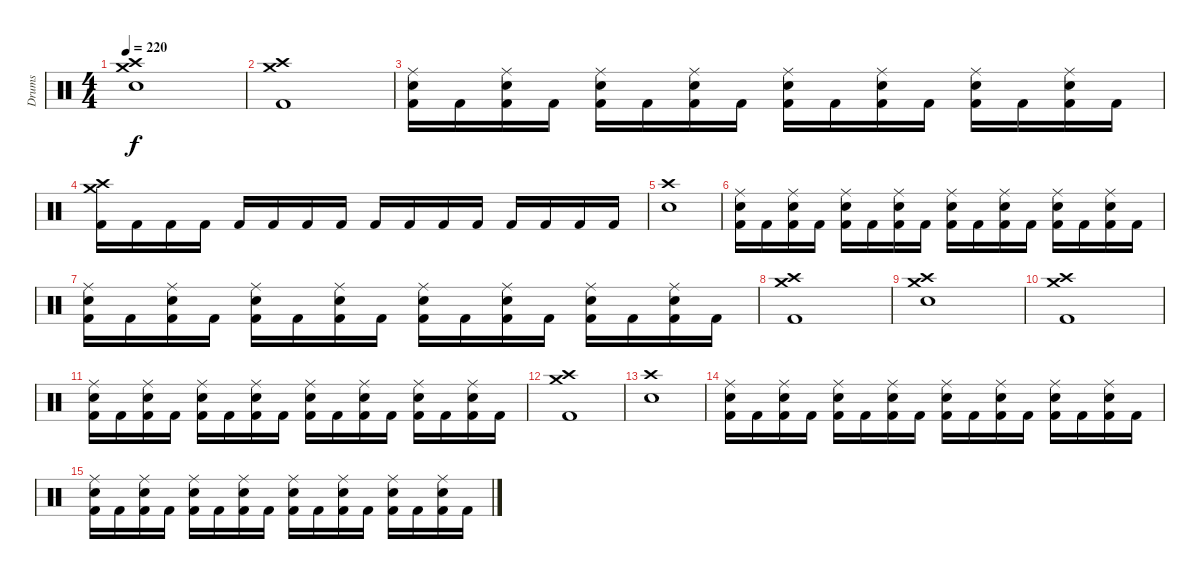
\track ("Drums" "Drums") {instrument percussion}
\staff {score}
\articulation defaults
\ts (4 4)
\tempo 220
\clef neutral
\ks c
("Electric Snare (hit)" "Crash high (hit)" "Crash medium (hit)").1{dy f} |
("Kick (hit) 2" "Crash high (hit)" "Crash medium (hit)").1 |
("Kick (hit) 2" "Electric Snare (hit)" "Ride (middle)").16 "Kick (hit) 2".16 ("Kick (hit) 2" "Electric Snare (hit)" "Ride (middle)").16 "Kick (hit) 2".16 ("Kick (hit) 2" "Electric Snare (hit)" "Ride (middle)").16 "Kick (hit) 2".16 ("Kick (hit) 2" "Electric Snare (hit)" "Ride (middle)").16 "Kick (hit) 2".16 ("Kick (hit) 2" "Electric Snare (hit)" "Ride (middle)").16 "Kick (hit) 2".16 ("Kick (hit) 2" "Electric Snare (hit)" "Ride (middle)").16 "Kick (hit) 2".16 ("Kick (hit) 2" "Electric Snare (hit)" "Ride (middle)").16 "Kick (hit) 2".16 ("Kick (hit) 2" "Electric Snare (hit)" "Ride (middle)").16 "Kick (hit) 2".16 |
("Kick (hit) 2" "Crash high (hit)" "Crash medium (hit)").16 "Kick (hit) 2".16 "Kick (hit) 2".16 "Kick (hit) 2".16 "Kick (hit) 2".16 "Kick (hit) 2".16 "Kick (hit) 2".16 "Kick (hit) 2".16 "Kick (hit) 2".16 "Kick (hit) 2".16 "Kick (hit) 2".16 "Kick (hit) 2".16 "Kick (hit) 2".16 "Kick (hit) 2".16 "Kick (hit) 2".16 "Kick (hit) 2".16 |
("Electric Snare (hit)" "Crash high (hit)").1 |
("Kick (hit) 2" "Electric Snare (hit)" "Ride (middle)").16 "Kick (hit) 2".16 ("Kick (hit) 2" "Electric Snare (hit)" "Ride (middle)").16 "Kick (hit) 2".16 ("Kick (hit) 2" "Electric Snare (hit)" "Ride (middle)").16 "Kick (hit) 2".16 ("Kick (hit) 2" "Electric Snare (hit)" "Ride (middle)").16 "Kick (hit) 2".16 ("Kick (hit) 2" "Electric Snare (hit)" "Ride (middle)").16 "Kick (hit) 2".16 ("Kick (hit) 2" "Electric Snare (hit)" "Ride (middle)").16 "Kick (hit) 2".16 ("Kick (hit) 2" "Electric Snare (hit)" "Ride (middle)").16 "Kick (hit) 2".16 ("Kick (hit) 2" "Electric Snare (hit)" "Ride (middle)").16 "Kick (hit) 2".16 |
("Kick (hit) 2" "Electric Snare (hit)" "Ride (middle)").16 "Kick (hit) 2".16 ("Kick (hit) 2" "Electric Snare (hit)" "Ride (middle)").16 "Kick (hit) 2".16 ("Kick (hit) 2" "Electric Snare (hit)" "Ride (middle)").16 "Kick (hit) 2".16 ("Kick (hit) 2" "Electric Snare (hit)" "Ride (middle)").16 "Kick (hit) 2".16 ("Kick (hit) 2" "Electric Snare (hit)" "Ride (middle)").16 "Kick (hit) 2".16 ("Kick (hit) 2" "Electric Snare (hit)" "Ride (middle)").16 "Kick (hit) 2".16 ("Kick (hit) 2" "Electric Snare (hit)" "Ride (middle)").16 "Kick (hit) 2".16 ("Kick (hit) 2" "Electric Snare (hit)" "Ride (middle)").16 "Kick (hit) 2".16 |
("Kick (hit) 2" "Crash high (hit)" "Crash medium (hit)").1 |
("Electric Snare (hit)" "Crash high (hit)" "Crash medium (hit)").1 |
("Kick (hit) 2" "Crash high (hit)" "Crash medium (hit)").1 |
("Kick (hit) 2" "Electric Snare (hit)" "Ride (middle)").16 "Kick (hit) 2".16 ("Kick (hit) 2" "Electric Snare (hit)" "Ride (middle)").16 "Kick (hit) 2".16 ("Kick (hit) 2" "Electric Snare (hit)" "Ride (middle)").16 "Kick (hit) 2".16 ("Kick (hit) 2" "Electric Snare (hit)" "Ride (middle)").16 "Kick (hit) 2".16 ("Kick (hit) 2" "Electric Snare (hit)" "Ride (middle)").16 "Kick (hit) 2".16 ("Kick (hit) 2" "Electric Snare (hit)" "Ride (middle)").16 "Kick (hit) 2".16 ("Kick (hit) 2" "Electric Snare (hit)" "Ride (middle)").16 "Kick (hit) 2".16 ("Kick (hit) 2" "Electric Snare (hit)" "Ride (middle)").16 "Kick (hit) 2".16 |
("Kick (hit) 2" "Crash high (hit)" "Crash medium (hit)").1 |
("Electric Snare (hit)" "Crash high (hit)").1 |
("Kick (hit) 2" "Electric Snare (hit)" "Ride (middle)").16 "Kick (hit) 2".16 ("Kick (hit) 2" "Electric Snare (hit)" "Ride (middle)").16 "Kick (hit) 2".16 ("Kick (hit) 2" "Electric Snare (hit)" "Ride (middle)").16 "Kick (hit) 2".16 ("Kick (hit) 2" "Electric Snare (hit)" "Ride (middle)").16 "Kick (hit) 2".16 ("Kick (hit) 2" "Electric Snare (hit)" "Ride (middle)").16 "Kick (hit) 2".16 ("Kick (hit) 2" "Electric Snare (hit)" "Ride (middle)").16 "Kick (hit) 2".16 ("Kick (hit) 2" "Electric Snare (hit)" "Ride (middle)").16 "Kick (hit) 2".16 ("Kick (hit) 2" "Electric Snare (hit)" "Ride (middle)").16 "Kick (hit) 2".16 |
("Kick (hit) 2" "Electric Snare (hit)" "Ride (middle)").16 "Kick (hit) 2".16 ("Kick (hit) 2" "Electric Snare (hit)" "Ride (middle)").16 "Kick (hit) 2".16 ("Kick (hit) 2" "Electric Snare (hit)" "Ride (middle)").16 "Kick (hit) 2".16 ("Kick (hit) 2" "Electric Snare (hit)" "Ride (middle)").16 "Kick (hit) 2".16 ("Kick (hit) 2" "Electric Snare (hit)" "Ride (middle)").16 "Kick (hit) 2".16 ("Kick (hit) 2" "Electric Snare (hit)" "Ride (middle)").16 "Kick (hit) 2".16 ("Kick (hit) 2" "Electric Snare (hit)" "Ride (middle)").16 "Kick (hit) 2".16 ("Kick (hit) 2" "Electric Snare (hit)" "Ride (middle)").16 "Kick (hit) 2".16
